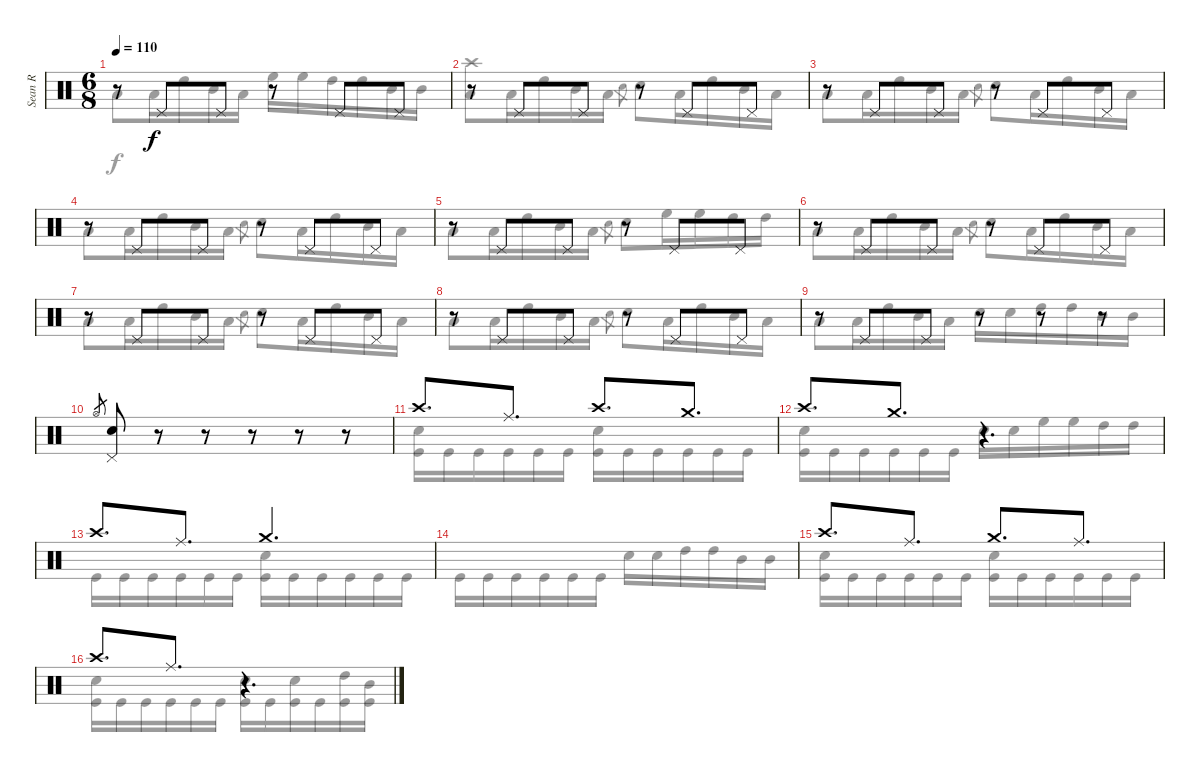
\track ("Sean R" "Sean R") {instrument percussion}
\staff {score}
\articulation defaults
\voice
\ts (6 8)
\tempo 110
\clef neutral
\ks c
r.8{dy f} "Pedal Hi-Hat (hit)".8 "Pedal Hi-Hat (hit)".8 r.8 "Pedal Hi-Hat (hit)".8 "Pedal Hi-Hat (hit)".8 |
r.8 "Pedal Hi-Hat (hit)".8 "Pedal Hi-Hat (hit)".8 r.8 "Pedal Hi-Hat (hit)".8 "Pedal Hi-Hat (hit)".8 |
r.8 "Pedal Hi-Hat (hit)".8 "Pedal Hi-Hat (hit)".8 r.8 "Pedal Hi-Hat (hit)".8 "Pedal Hi-Hat (hit)".8 |
r.8 "Pedal Hi-Hat (hit)".8 "Pedal Hi-Hat (hit)".8 r.8 "Pedal Hi-Hat (hit)".8 "Pedal Hi-Hat (hit)".8 |
r.8 "Pedal Hi-Hat (hit)".8 "Pedal Hi-Hat (hit)".8 r.8 "Pedal Hi-Hat (hit)".8 "Pedal Hi-Hat (hit)".8 |
r.8 "Pedal Hi-Hat (hit)".8 "Pedal Hi-Hat (hit)".8 r.8 "Pedal Hi-Hat (hit)".8 "Pedal Hi-Hat (hit)".8 |
r.8 "Pedal Hi-Hat (hit)".8 "Pedal Hi-Hat (hit)".8 r.8 "Pedal Hi-Hat (hit)".8 "Pedal Hi-Hat (hit)".8 |
r.8 "Pedal Hi-Hat (hit)".8 "Pedal Hi-Hat (hit)".8 r.8 "Pedal Hi-Hat (hit)".8 "Pedal Hi-Hat (hit)".8 |
r.8 "Pedal Hi-Hat (hit)".8 "Pedal Hi-Hat (hit)".8 r.8 r.8 r.8 |
"Hi-Hat (open)".8{gr} ("Pedal Hi-Hat (hit)" "Snare (hit) 2").8 r.8 r.8 r.8 r.8 r.8 |
"Crash high (hit)".8{d} "Ride (middle)".8{d} "Crash high (hit)".8{d} "Crash medium (hit)".8{d} |
"Crash high (hit)".8{d} "Crash medium (hit)".8{d} r.4{d} |
"Crash high (hit)".8{d} "Ride (middle)".8{d} "Crash medium (hit)".4{d} |
|
"Crash high (hit)".8{d} "Ride (middle)".8{d} "Crash medium (hit)".8{d} "Ride (middle)".8{d} |
"Crash high (hit)".8{d} "Ride (middle)".8{d} r.4{d}
\voice
\clef neutral
\ottava regular
\simile none
\ks c "Low Tom (hit)".8{dy f} "Low Tom (hit)".16 "High Tom (hit)".16 "Mid Tom (hit)".16 "Low Tom (hit)".16 "High Floor Tom (hit)".16 "High Floor Tom (hit)".16 "High Tom (hit)".16 "High Tom (hit)".16 "Mid Tom (hit)".16 "Mid Tom (hit)".16
|
("Crash high (hit)" "Low Tom (hit)").8 "Low Tom (hit)".16 "High Tom (hit)".16 "Mid Tom (hit)".16 "Low Tom (hit)".16 "Snare (hit) 2".8{gr} "Snare (hit) 2".8 "Low Tom (hit)".16 "High Tom (hit)".16 "Mid Tom (hit)".16 "Low Tom (hit)".16 |
"Low Tom (hit)".8 "Low Tom (hit)".16 "High Tom (hit)".16 "Mid Tom (hit)".16 "Low Tom (hit)".16 "Snare (hit) 2".8{gr} "Snare (hit) 2".8 "Low Tom (hit)".16 "High Tom (hit)".16 "Mid Tom (hit)".16 "Low Tom (hit)".16 |
"Low Tom (hit)".8 "Low Tom (hit)".16 "High Tom (hit)".16 "Mid Tom (hit)".16 "Low Tom (hit)".16 "Snare (hit) 2".8{gr} "Snare (hit) 2".8 "Low Tom (hit)".16 "High Tom (hit)".16 "Mid Tom (hit)".16 "Low Tom (hit)".16 |
"Low Tom (hit)".8 "Low Tom (hit)".16 "High Tom (hit)".16 "Mid Tom (hit)".16 "Low Tom (hit)".16 "Snare (hit) 2".8{gr} "Snare (hit) 2".8 "High Floor Tom (hit)".16 "High Floor Tom (hit)".16 "High Tom (hit)".16 "High Tom (hit)".16 |
"Low Tom (hit)".8 "Low Tom (hit)".16 "High Tom (hit)".16 "Mid Tom (hit)".16 "Low Tom (hit)".16 "Snare (hit) 2".8{gr} "Snare (hit) 2".8 "Low Tom (hit)".16 "High Tom (hit)".16 "Mid Tom (hit)".16 "Low Tom (hit)".16 |
"Low Tom (hit)".8 "Low Tom (hit)".16 "High Tom (hit)".16 "Mid Tom (hit)".16 "Low Tom (hit)".16 "Snare (hit) 2".8{gr} "Snare (hit) 2".8 "Low Tom (hit)".16 "High Tom (hit)".16 "Mid Tom (hit)".16 "Low Tom (hit)".16 |
"Low Tom (hit)".8 "Low Tom (hit)".16 "High Tom (hit)".16 "Mid Tom (hit)".16 "Low Tom (hit)".16 "Snare (hit) 2".8{gr} "Snare (hit) 2".8 "Low Tom (hit)".16 "High Tom (hit)".16 "Mid Tom (hit)".16 "Low Tom (hit)".16 |
"Low Tom (hit)".8 "Low Tom (hit)".16 "High Tom (hit)".16 "Mid Tom (hit)".16 "Low Tom (hit)".16 "Snare (hit) 2".16 "Snare (hit) 2".16 "High Tom (hit)".16 "High Tom (hit)".16 "Mid Tom (hit)".16 "Mid Tom (hit)".16 |
|
("Snare (hit) 2" "Kick (hit)").16 "Kick (hit)".16 "Kick (hit)".16 "Kick (hit)".16 "Kick (hit)".16 "Kick (hit)".16 ("Snare (hit) 2" "Kick (hit)").16 "Kick (hit)".16 "Kick (hit)".16 "Kick (hit)".16 "Kick (hit)".16 "Kick (hit)".16 |
("Snare (hit) 2" "Kick (hit)").16 "Kick (hit)".16 "Kick (hit)".16 "Kick (hit)".16 "Kick (hit)".16 "Kick (hit)".16 "Snare (hit) 2".16 "Snare (hit) 2".16 "High Floor Tom (hit)".16 "High Floor Tom (hit)".16 "High Tom (hit)".16 "High Tom (hit)".16 |
"Kick (hit)".16 "Kick (hit)".16 "Kick (hit)".16 "Kick (hit)".16 "Kick (hit)".16 "Kick (hit)".16 ("Snare (hit) 2" "Kick (hit)").16 "Kick (hit)".16 "Kick (hit)".16 "Kick (hit)".16 "Kick (hit)".16 "Kick (hit)".16 |
"Kick (hit)".16 "Kick (hit)".16 "Kick (hit)".16 "Kick (hit)".16 "Kick (hit)".16 "Kick (hit)".16 "Snare (hit) 2".16 "Snare (hit) 2".16 "High Tom (hit)".16 "High Tom (hit)".16 "Mid Tom (hit)".16 "Mid Tom (hit)".16 |
("Snare (hit) 2" "Kick (hit)").16 "Kick (hit)".16 "Kick (hit)".16 "Kick (hit)".16 "Kick (hit)".16 "Kick (hit)".16 ("Snare (hit) 2" "Kick (hit)").16 "Kick (hit)".16 "Kick (hit)".16 "Kick (hit)".16 "Kick (hit)".16 "Kick (hit)".16 |
("Snare (hit) 2" "Kick (hit)").16 "Kick (hit)".16 "Kick (hit)".16 "Kick (hit)".16 "Kick (hit)".16 "Kick (hit)".16 ("Snare (hit) 2" "Kick (hit)").16 "Kick (hit)".16 ("Snare (hit) 2" "Kick (hit)").16 "Kick (hit)".16 ("High Tom (hit)" "Kick (hit)").16 ("Mid Tom (hit)" "Kick (hit)").16
